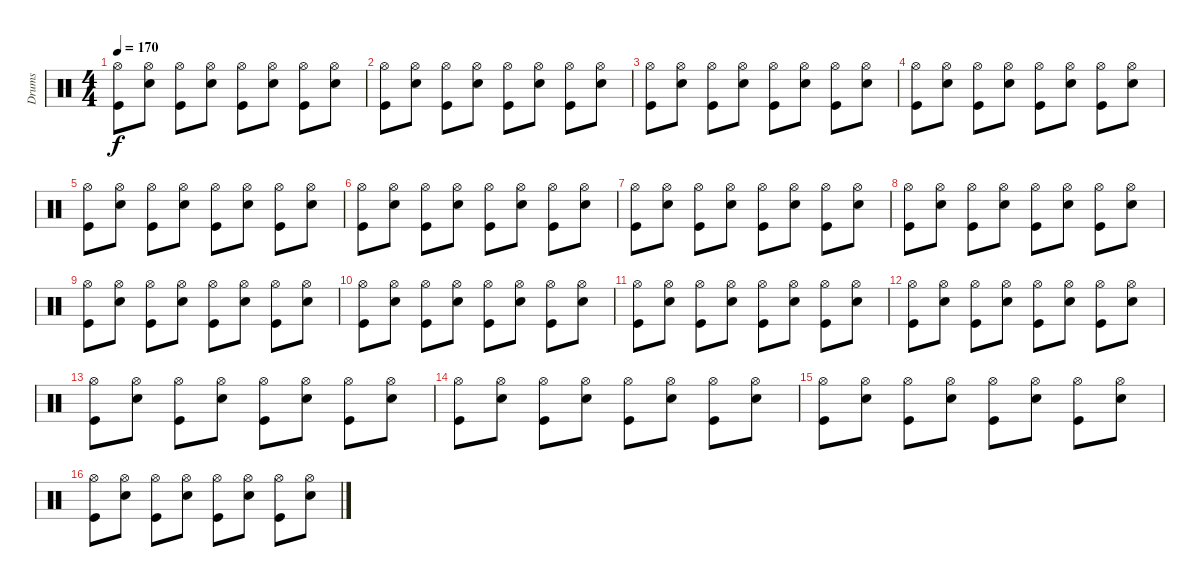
\track ("Drums" "Drums") {instrument percussion}
\staff {score}
\articulation defaults
\ts (4 4)
\tempo 170
\clef neutral
\ks c
("Hi-Hat (open)" "Kick (hit)").8{dy f} ("Hi-Hat (open)" "Snare (hit) 2").8 ("Hi-Hat (open)" "Kick (hit)").8 ("Hi-Hat (open)" "Snare (hit) 2").8 ("Hi-Hat (open)" "Kick (hit)").8 ("Hi-Hat (open)" "Snare (hit) 2").8 ("Hi-Hat (open)" "Kick (hit)").8 ("Hi-Hat (open)" "Snare (hit) 2").8 |
("Hi-Hat (open)" "Kick (hit)").8 ("Hi-Hat (open)" "Snare (hit) 2").8 ("Hi-Hat (open)" "Kick (hit)").8 ("Hi-Hat (open)" "Snare (hit) 2").8 ("Hi-Hat (open)" "Kick (hit)").8 ("Hi-Hat (open)" "Snare (hit) 2").8 ("Hi-Hat (open)" "Kick (hit)").8 ("Hi-Hat (open)" "Snare (hit) 2").8 |
("Hi-Hat (open)" "Kick (hit)").8 ("Hi-Hat (open)" "Snare (hit) 2").8 ("Hi-Hat (open)" "Kick (hit)").8 ("Hi-Hat (open)" "Snare (hit) 2").8 ("Hi-Hat (open)" "Kick (hit)").8 ("Hi-Hat (open)" "Snare (hit) 2").8 ("Hi-Hat (open)" "Kick (hit)").8 ("Hi-Hat (open)" "Snare (hit) 2").8 |
("Hi-Hat (open)" "Kick (hit)").8 ("Hi-Hat (open)" "Snare (hit) 2").8 ("Hi-Hat (open)" "Kick (hit)").8 ("Hi-Hat (open)" "Snare (hit) 2").8 ("Hi-Hat (open)" "Kick (hit)").8 ("Hi-Hat (open)" "Snare (hit) 2").8 ("Hi-Hat (open)" "Kick (hit)").8 ("Hi-Hat (open)" "Snare (hit) 2").8 |
("Hi-Hat (open)" "Kick (hit)").8 ("Hi-Hat (open)" "Snare (hit) 2").8 ("Hi-Hat (open)" "Kick (hit)").8 ("Hi-Hat (open)" "Snare (hit) 2").8 ("Hi-Hat (open)" "Kick (hit)").8 ("Hi-Hat (open)" "Snare (hit) 2").8 ("Hi-Hat (open)" "Kick (hit)").8 ("Hi-Hat (open)" "Snare (hit) 2").8 |
("Hi-Hat (open)" "Kick (hit)").8 ("Hi-Hat (open)" "Snare (hit) 2").8 ("Hi-Hat (open)" "Kick (hit)").8 ("Hi-Hat (open)" "Snare (hit) 2").8 ("Hi-Hat (open)" "Kick (hit)").8 ("Hi-Hat (open)" "Snare (hit) 2").8 ("Hi-Hat (open)" "Kick (hit)").8 ("Hi-Hat (open)" "Snare (hit) 2").8 |
("Hi-Hat (open)" "Kick (hit)").8 ("Hi-Hat (open)" "Snare (hit) 2").8 ("Hi-Hat (open)" "Kick (hit)").8 ("Hi-Hat (open)" "Snare (hit) 2").8 ("Hi-Hat (open)" "Kick (hit)").8 ("Hi-Hat (open)" "Snare (hit) 2").8 ("Hi-Hat (open)" "Kick (hit)").8 ("Hi-Hat (open)" "Snare (hit) 2").8 |
("Hi-Hat (open)" "Kick (hit)").8 ("Hi-Hat (open)" "Snare (hit) 2").8 ("Hi-Hat (open)" "Kick (hit)").8 ("Hi-Hat (open)" "Snare (hit) 2").8 ("Hi-Hat (open)" "Kick (hit)").8 ("Hi-Hat (open)" "Snare (hit) 2").8 ("Hi-Hat (open)" "Kick (hit)").8 ("Hi-Hat (open)" "Snare (hit) 2").8 |
("Hi-Hat (open)" "Kick (hit)").8 ("Hi-Hat (open)" "Snare (hit) 2").8 ("Hi-Hat (open)" "Kick (hit)").8 ("Hi-Hat (open)" "Snare (hit) 2").8 ("Hi-Hat (open)" "Kick (hit)").8 ("Hi-Hat (open)" "Snare (hit) 2").8 ("Hi-Hat (open)" "Kick (hit)").8 ("Hi-Hat (open)" "Snare (hit) 2").8 |
("Hi-Hat (open)" "Kick (hit)").8 ("Hi-Hat (open)" "Snare (hit) 2").8 ("Hi-Hat (open)" "Kick (hit)").8 ("Hi-Hat (open)" "Snare (hit) 2").8 ("Hi-Hat (open)" "Kick (hit)").8 ("Hi-Hat (open)" "Snare (hit) 2").8 ("Hi-Hat (open)" "Kick (hit)").8 ("Hi-Hat (open)" "Snare (hit) 2").8 |
("Hi-Hat (open)" "Kick (hit)").8 ("Hi-Hat (open)" "Snare (hit) 2").8 ("Hi-Hat (open)" "Kick (hit)").8 ("Hi-Hat (open)" "Snare (hit) 2").8 ("Hi-Hat (open)" "Kick (hit)").8 ("Hi-Hat (open)" "Snare (hit) 2").8 ("Hi-Hat (open)" "Kick (hit)").8 ("Hi-Hat (open)" "Snare (hit) 2").8 |
("Hi-Hat (open)" "Kick (hit)").8 ("Hi-Hat (open)" "Snare (hit) 2").8 ("Hi-Hat (open)" "Kick (hit)").8 ("Hi-Hat (open)" "Snare (hit) 2").8 ("Hi-Hat (open)" "Kick (hit)").8 ("Hi-Hat (open)" "Snare (hit) 2").8 ("Hi-Hat (open)" "Kick (hit)").8 ("Hi-Hat (open)" "Snare (hit) 2").8 |
("Hi-Hat (open)" "Kick (hit)").8 ("Hi-Hat (open)" "Snare (hit) 2").8 ("Hi-Hat (open)" "Kick (hit)").8 ("Hi-Hat (open)" "Snare (hit) 2").8 ("Hi-Hat (open)" "Kick (hit)").8 ("Hi-Hat (open)" "Snare (hit) 2").8 ("Hi-Hat (open)" "Kick (hit)").8 ("Hi-Hat (open)" "Snare (hit) 2").8 |
("Hi-Hat (open)" "Kick (hit)").8 ("Hi-Hat (open)" "Snare (hit) 2").8 ("Hi-Hat (open)" "Kick (hit)").8 ("Hi-Hat (open)" "Snare (hit) 2").8 ("Hi-Hat (open)" "Kick (hit)").8 ("Hi-Hat (open)" "Snare (hit) 2").8 ("Hi-Hat (open)" "Kick (hit)").8 ("Hi-Hat (open)" "Snare (hit) 2").8 |
("Hi-Hat (open)" "Kick (hit)").8 ("Hi-Hat (open)" "Snare (hit) 2").8 ("Hi-Hat (open)" "Kick (hit)").8 ("Hi-Hat (open)" "Snare (hit) 2").8 ("Hi-Hat (open)" "Kick (hit)").8 ("Hi-Hat (open)" "Snare (hit) 2").8 ("Hi-Hat (open)" "Kick (hit)").8 ("Hi-Hat (open)" "Snare (hit) 2").8 |
("Hi-Hat (open)" "Kick (hit)").8 ("Hi-Hat (open)" "Snare (hit) 2").8 ("Hi-Hat (open)" "Kick (hit)").8 ("Hi-Hat (open)" "Snare (hit) 2").8 ("Hi-Hat (open)" "Kick (hit)").8 ("Hi-Hat (open)" "Snare (hit) 2").8 ("Hi-Hat (open)" "Kick (hit)").8 ("Hi-Hat (open)" "Snare (hit) 2").8
